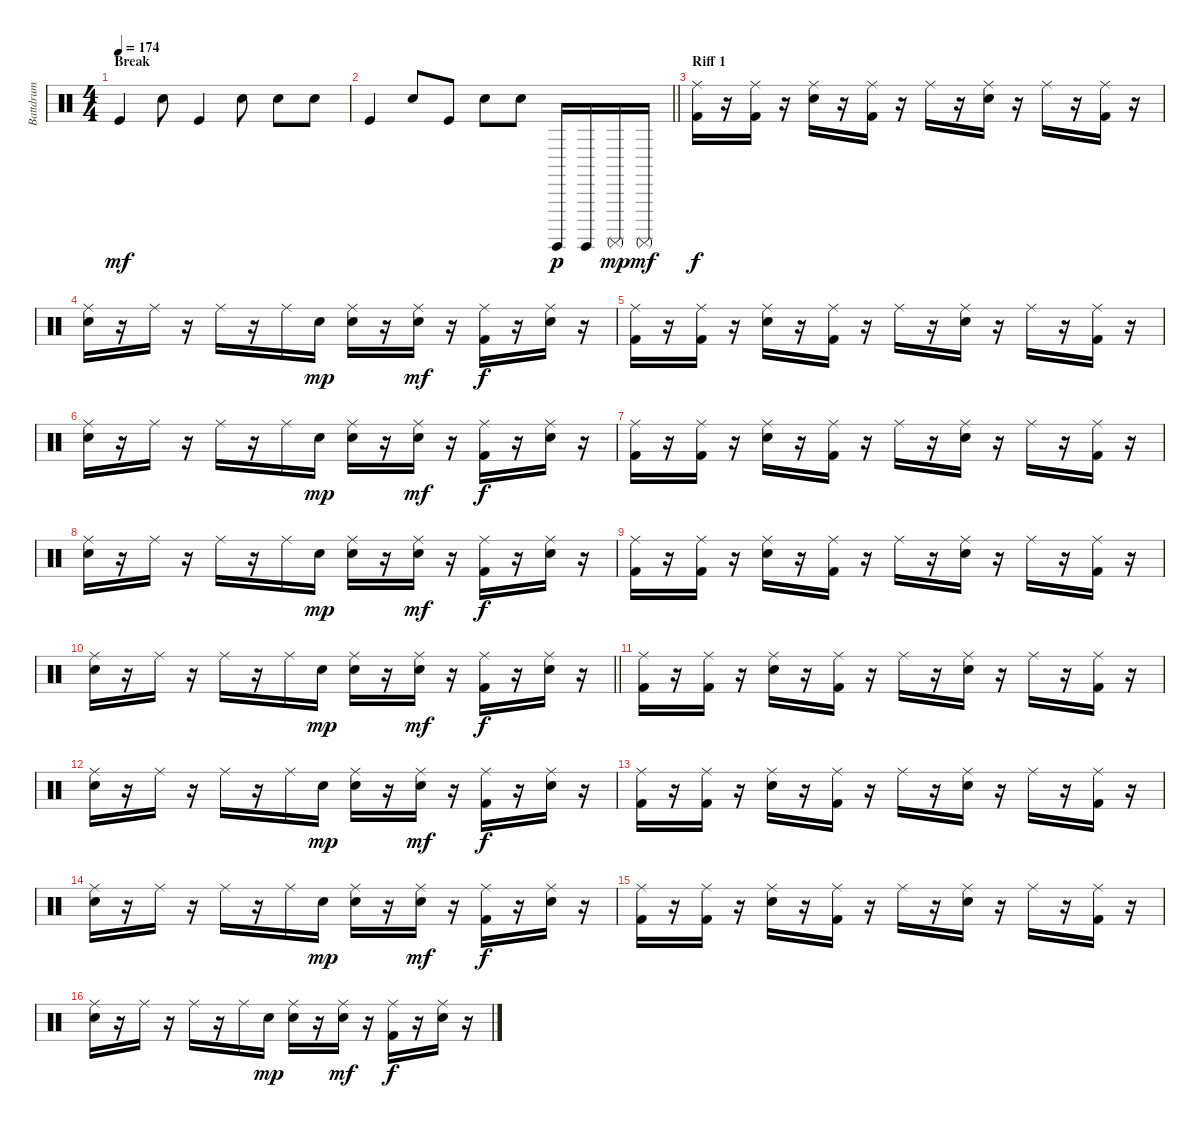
\track ("Battdrum" "Battdrum") {instrument percussion}
\staff {score}
\articulation defaults
\ts (4 4)
\section ("" "Break")
\tempo 174
\clef neutral
\ks c "Kick (hit)".4{dy mf} "Electric Snare (hit)".8 "Kick (hit)".4 "Electric Snare (hit)".8 "Snare (hit) 2".8 "Snare (hit) 2".8
|
\barLineRight lightlight "Kick (hit)".4 "Electric Snare (hit)".8 "Kick (hit)".8 "Snare (hit) 2".8 "Snare (hit) 2".8 "Surdo (hit)".16{dy p} "Surdo (hit)".16 "Surdo (mute)".16{dy mp} "Surdo (mute)".16{dy mf}
|
\section ("" "Riff 1")
("Kick (hit) 2" "Ride (middle)").16{dy f} r.16 ("Kick (hit) 2" "Ride (middle)").16 r.16 ("Snare (hit) 2" "Ride (middle)").16 r.16 ("Kick (hit) 2" "Ride (middle)").16 r.16 "Ride (middle)".16 r.16 ("Snare (hit) 2" "Ride (middle)").16 r.16 "Ride (middle)".16 r.16 ("Kick (hit) 2" "Ride (middle)").16 r.16 |
("Snare (hit) 2" "Ride (middle)").16 r.16 "Ride (middle)".16 r.16 "Ride (middle)".16 r.16 "Ride (middle)".16 "Snare (hit) 2".16{dy mp} ("Snare (hit) 2" "Ride (middle)").16 r.16 ("Snare (hit) 2" "Ride (middle)").16{dy mf} r.16 ("Kick (hit) 2" "Ride (middle)").16{dy f} r.16 ("Snare (hit) 2" "Ride (middle)").16 r.16 |
("Kick (hit) 2" "Ride (middle)").16 r.16 ("Kick (hit) 2" "Ride (middle)").16 r.16 ("Snare (hit) 2" "Ride (middle)").16 r.16 ("Kick (hit) 2" "Ride (middle)").16 r.16 "Ride (middle)".16 r.16 ("Snare (hit) 2" "Ride (middle)").16 r.16 "Ride (middle)".16 r.16 ("Kick (hit) 2" "Ride (middle)").16 r.16 |
("Snare (hit) 2" "Ride (middle)").16 r.16 "Ride (middle)".16 r.16 "Ride (middle)".16 r.16 "Ride (middle)".16 "Snare (hit) 2".16{dy mp} ("Snare (hit) 2" "Ride (middle)").16 r.16 ("Snare (hit) 2" "Ride (middle)").16{dy mf} r.16 ("Kick (hit) 2" "Ride (middle)").16{dy f} r.16 ("Snare (hit) 2" "Ride (middle)").16 r.16 |
("Kick (hit) 2" "Ride (middle)").16 r.16 ("Kick (hit) 2" "Ride (middle)").16 r.16 ("Snare (hit) 2" "Ride (middle)").16 r.16 ("Kick (hit) 2" "Ride (middle)").16 r.16 "Ride (middle)".16 r.16 ("Snare (hit) 2" "Ride (middle)").16 r.16 "Ride (middle)".16 r.16 ("Kick (hit) 2" "Ride (middle)").16 r.16 |
("Snare (hit) 2" "Ride (middle)").16 r.16 "Ride (middle)".16 r.16 "Ride (middle)".16 r.16 "Ride (middle)".16 "Snare (hit) 2".16{dy mp} ("Snare (hit) 2" "Ride (middle)").16 r.16 ("Snare (hit) 2" "Ride (middle)").16{dy mf} r.16 ("Kick (hit) 2" "Ride (middle)").16{dy f} r.16 ("Snare (hit) 2" "Ride (middle)").16 r.16 |
("Kick (hit) 2" "Ride (middle)").16 r.16 ("Kick (hit) 2" "Ride (middle)").16 r.16 ("Snare (hit) 2" "Ride (middle)").16 r.16 ("Kick (hit) 2" "Ride (middle)").16 r.16 "Ride (middle)".16 r.16 ("Snare (hit) 2" "Ride (middle)").16 r.16 "Ride (middle)".16 r.16 ("Kick (hit) 2" "Ride (middle)").16 r.16 |
\barLineRight lightlight
("Snare (hit) 2" "Ride (middle)").16 r.16 "Ride (middle)".16 r.16 "Ride (middle)".16 r.16 "Ride (middle)".16 "Snare (hit) 2".16{dy mp} ("Snare (hit) 2" "Ride (middle)").16 r.16 ("Snare (hit) 2" "Ride (middle)").16{dy mf} r.16 ("Kick (hit) 2" "Ride (middle)").16{dy f} r.16 ("Snare (hit) 2" "Ride (middle)").16 r.16 |
("Kick (hit) 2" "Ride (middle)").16 r.16 ("Kick (hit) 2" "Ride (middle)").16 r.16 ("Snare (hit) 2" "Ride (middle)").16 r.16 ("Kick (hit) 2" "Ride (middle)").16 r.16 "Ride (middle)".16 r.16 ("Snare (hit) 2" "Ride (middle)").16 r.16 "Ride (middle)".16 r.16 ("Kick (hit) 2" "Ride (middle)").16 r.16 |
("Snare (hit) 2" "Ride (middle)").16 r.16 "Ride (middle)".16 r.16 "Ride (middle)".16 r.16 "Ride (middle)".16 "Snare (hit) 2".16{dy mp} ("Snare (hit) 2" "Ride (middle)").16 r.16 ("Snare (hit) 2" "Ride (middle)").16{dy mf} r.16 ("Kick (hit) 2" "Ride (middle)").16{dy f} r.16 ("Snare (hit) 2" "Ride (middle)").16 r.16 |
("Kick (hit) 2" "Ride (middle)").16 r.16 ("Kick (hit) 2" "Ride (middle)").16 r.16 ("Snare (hit) 2" "Ride (middle)").16 r.16 ("Kick (hit) 2" "Ride (middle)").16 r.16 "Ride (middle)".16 r.16 ("Snare (hit) 2" "Ride (middle)").16 r.16 "Ride (middle)".16 r.16 ("Kick (hit) 2" "Ride (middle)").16 r.16 |
("Snare (hit) 2" "Ride (middle)").16 r.16 "Ride (middle)".16 r.16 "Ride (middle)".16 r.16 "Ride (middle)".16 "Snare (hit) 2".16{dy mp} ("Snare (hit) 2" "Ride (middle)").16 r.16 ("Snare (hit) 2" "Ride (middle)").16{dy mf} r.16 ("Kick (hit) 2" "Ride (middle)").16{dy f} r.16 ("Snare (hit) 2" "Ride (middle)").16 r.16 |
("Kick (hit) 2" "Ride (middle)").16 r.16 ("Kick (hit) 2" "Ride (middle)").16 r.16 ("Snare (hit) 2" "Ride (middle)").16 r.16 ("Kick (hit) 2" "Ride (middle)").16 r.16 "Ride (middle)".16 r.16 ("Snare (hit) 2" "Ride (middle)").16 r.16 "Ride (middle)".16 r.16 ("Kick (hit) 2" "Ride (middle)").16 r.16 |
("Snare (hit) 2" "Ride (middle)").16 r.16 "Ride (middle)".16 r.16 "Ride (middle)".16 r.16 "Ride (middle)".16 "Snare (hit) 2".16{dy mp} ("Snare (hit) 2" "Ride (middle)").16 r.16 ("Snare (hit) 2" "Ride (middle)").16{dy mf} r.16 ("Kick (hit) 2" "Ride (middle)").16{dy f} r.16 ("Snare (hit) 2" "Ride (middle)").16 r.16
